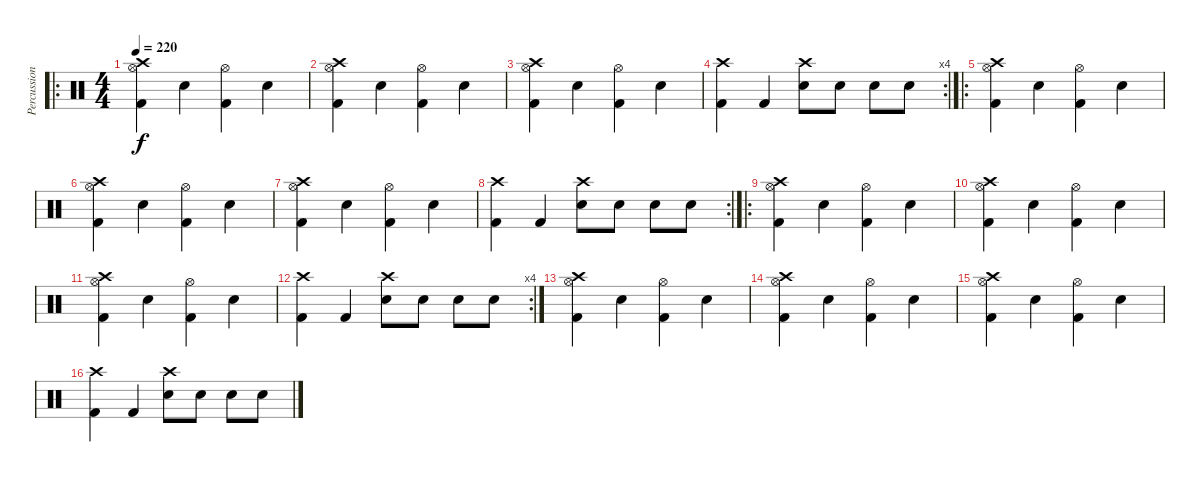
\track ("Percussion" "Percussion") {instrument percussion}
\staff {score}
\articulation defaults
\ro
\ts (4 4)
\tempo 220
\clef neutral
\ks c
("Crash high (hit)" "Hi-Hat (open)" "Kick (hit) 2").4{dy f} "Snare (hit) 2".4 ("Hi-Hat (open)" "Kick (hit) 2").4 "Snare (hit) 2".4 |
("Crash high (hit)" "Hi-Hat (open)" "Kick (hit) 2").4 "Snare (hit) 2".4 ("Hi-Hat (open)" "Kick (hit) 2").4 "Snare (hit) 2".4 |
("Crash high (hit)" "Hi-Hat (open)" "Kick (hit) 2").4 "Snare (hit) 2".4 ("Hi-Hat (open)" "Kick (hit) 2").4 "Snare (hit) 2".4 |
\rc 4
("Crash high (hit)" "Kick (hit) 2").4 "Kick (hit) 2".4 ("Crash high (hit)" "Snare (hit) 2").8 "Snare (hit) 2".8 "Snare (hit) 2".8 "Snare (hit) 2".8 |
\ro
("Crash high (hit)" "Hi-Hat (open)" "Kick (hit) 2").4 "Snare (hit) 2".4 ("Hi-Hat (open)" "Kick (hit) 2").4 "Snare (hit) 2".4 |
("Crash high (hit)" "Hi-Hat (open)" "Kick (hit) 2").4 "Snare (hit) 2".4 ("Hi-Hat (open)" "Kick (hit) 2").4 "Snare (hit) 2".4 |
("Crash high (hit)" "Hi-Hat (open)" "Kick (hit) 2").4 "Snare (hit) 2".4 ("Hi-Hat (open)" "Kick (hit) 2").4 "Snare (hit) 2".4 |
\rc 2
("Crash high (hit)" "Kick (hit) 2").4 "Kick (hit) 2".4 ("Crash high (hit)" "Snare (hit) 2").8 "Snare (hit) 2".8 "Snare (hit) 2".8 "Snare (hit) 2".8 |
\ro
("Crash high (hit)" "Hi-Hat (open)" "Kick (hit) 2").4 "Snare (hit) 2".4 ("Hi-Hat (open)" "Kick (hit) 2").4 "Snare (hit) 2".4 |
("Crash high (hit)" "Hi-Hat (open)" "Kick (hit) 2").4 "Snare (hit) 2".4 ("Hi-Hat (open)" "Kick (hit) 2").4 "Snare (hit) 2".4 |
("Crash high (hit)" "Hi-Hat (open)" "Kick (hit) 2").4 "Snare (hit) 2".4 ("Hi-Hat (open)" "Kick (hit) 2").4 "Snare (hit) 2".4 |
\rc 4
("Crash high (hit)" "Kick (hit) 2").4 "Kick (hit) 2".4 ("Crash high (hit)" "Snare (hit) 2").8 "Snare (hit) 2".8 "Snare (hit) 2".8 "Snare (hit) 2".8 |
("Crash high (hit)" "Hi-Hat (open)" "Kick (hit) 2").4{volume 11} "Snare (hit) 2".4 ("Hi-Hat (open)" "Kick (hit) 2").4 "Snare (hit) 2".4 |
("Crash high (hit)" "Hi-Hat (open)" "Kick (hit) 2").4{volume 10} "Snare (hit) 2".4 ("Hi-Hat (open)" "Kick (hit) 2").4 "Snare (hit) 2".4 |
("Crash high (hit)" "Hi-Hat (open)" "Kick (hit) 2").4{volume 10} "Snare (hit) 2".4 ("Hi-Hat (open)" "Kick (hit) 2").4 "Snare (hit) 2".4 |
("Crash high (hit)" "Kick (hit) 2").4{volume 8} "Kick (hit) 2".4 ("Crash high (hit)" "Snare (hit) 2").8 "Snare (hit) 2".8 "Snare (hit) 2".8 "Snare (hit) 2".8
